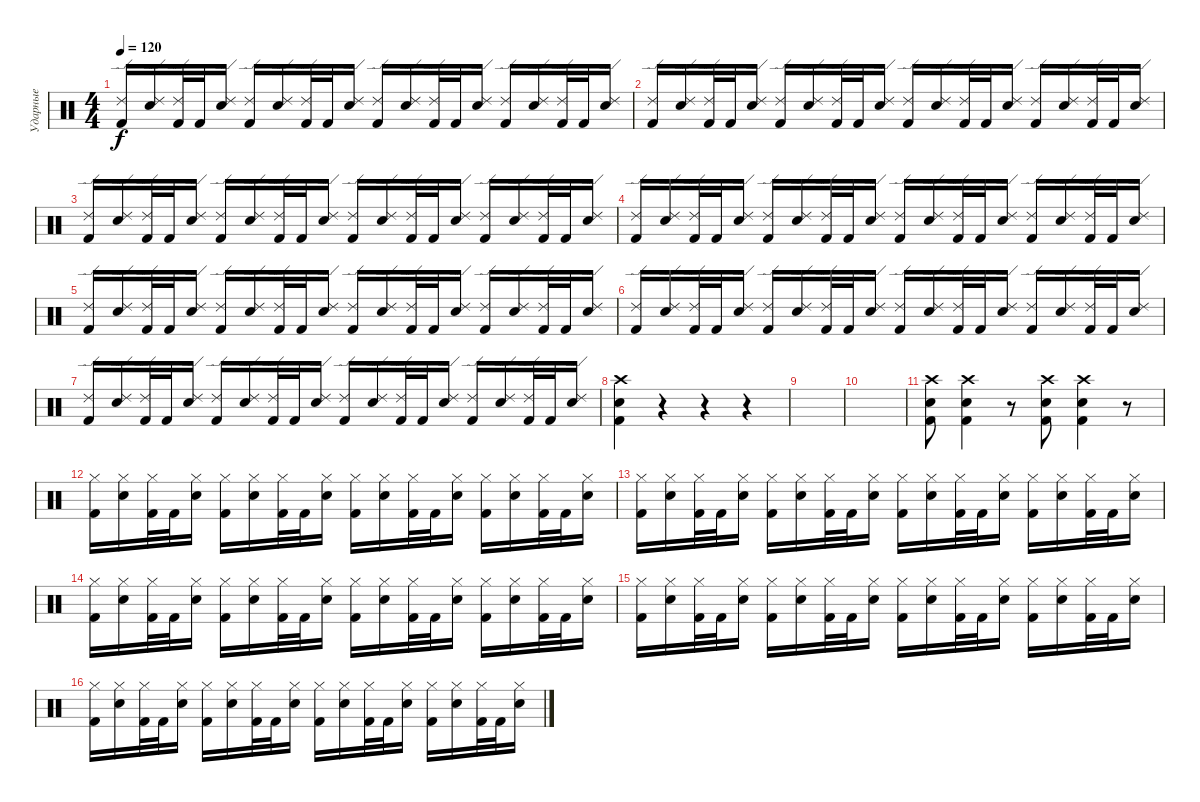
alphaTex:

\track ("Ударные" "Ударные") {instrument percussion}
\staff {score}
\articulation defaults
\ts (4 4)
\tempo 120
\clef neutral
\ks c
("Ride (edge) 2" "Kick (hit) 2").16{dy f} ("Ride (edge) 2" "Electric Snare (hit)").16 ("Ride (edge) 2" "Kick (hit) 2").32 "Kick (hit) 2".32 ("Ride (edge) 2" "Electric Snare (hit)").16 ("Ride (edge) 2" "Kick (hit) 2").16 ("Ride (edge) 2" "Electric Snare (hit)").16 ("Ride (edge) 2" "Kick (hit) 2").32 "Kick (hit) 2".32 ("Ride (edge) 2" "Electric Snare (hit)").16 ("Ride (edge) 2" "Kick (hit) 2").16 ("Ride (edge) 2" "Electric Snare (hit)").16 ("Ride (edge) 2" "Kick (hit) 2").32 "Kick (hit) 2".32 ("Ride (edge) 2" "Electric Snare (hit)").16 ("Ride (edge) 2" "Kick (hit) 2").16 ("Ride (edge) 2" "Electric Snare (hit)").16 ("Ride (edge) 2" "Kick (hit) 2").32 "Kick (hit) 2".32 ("Ride (edge) 2" "Electric Snare (hit)").16 |
("Ride (edge) 2" "Kick (hit) 2").16 ("Ride (edge) 2" "Electric Snare (hit)").16 ("Ride (edge) 2" "Kick (hit) 2").32 "Kick (hit) 2".32 ("Ride (edge) 2" "Electric Snare (hit)").16 ("Ride (edge) 2" "Kick (hit) 2").16 ("Ride (edge) 2" "Electric Snare (hit)").16 ("Ride (edge) 2" "Kick (hit) 2").32 "Kick (hit) 2".32 ("Ride (edge) 2" "Electric Snare (hit)").16 ("Ride (edge) 2" "Kick (hit) 2").16 ("Ride (edge) 2" "Electric Snare (hit)").16 ("Ride (edge) 2" "Kick (hit) 2").32 "Kick (hit) 2".32 ("Ride (edge) 2" "Electric Snare (hit)").16 ("Ride (edge) 2" "Kick (hit) 2").16 ("Ride (edge) 2" "Electric Snare (hit)").16 ("Ride (edge) 2" "Kick (hit) 2").32 "Kick (hit) 2".32 ("Ride (edge) 2" "Electric Snare (hit)").16 |
("Ride (edge) 2" "Kick (hit) 2").16 ("Ride (edge) 2" "Electric Snare (hit)").16 ("Ride (edge) 2" "Kick (hit) 2").32 "Kick (hit) 2".32 ("Ride (edge) 2" "Electric Snare (hit)").16 ("Ride (edge) 2" "Kick (hit) 2").16 ("Ride (edge) 2" "Electric Snare (hit)").16 ("Ride (edge) 2" "Kick (hit) 2").32 "Kick (hit) 2".32 ("Ride (edge) 2" "Electric Snare (hit)").16 ("Ride (edge) 2" "Kick (hit) 2").16 ("Ride (edge) 2" "Electric Snare (hit)").16 ("Ride (edge) 2" "Kick (hit) 2").32 "Kick (hit) 2".32 ("Ride (edge) 2" "Electric Snare (hit)").16 ("Ride (edge) 2" "Kick (hit) 2").16 ("Ride (edge) 2" "Electric Snare (hit)").16 ("Ride (edge) 2" "Kick (hit) 2").32 "Kick (hit) 2".32 ("Ride (edge) 2" "Electric Snare (hit)").16 |
("Ride (edge) 2" "Kick (hit) 2").16 ("Ride (edge) 2" "Electric Snare (hit)").16 ("Ride (edge) 2" "Kick (hit) 2").32 "Kick (hit) 2".32 ("Ride (edge) 2" "Electric Snare (hit)").16 ("Ride (edge) 2" "Kick (hit) 2").16 ("Ride (edge) 2" "Electric Snare (hit)").16 ("Ride (edge) 2" "Kick (hit) 2").32 "Kick (hit) 2".32 ("Ride (edge) 2" "Electric Snare (hit)").16 ("Ride (edge) 2" "Kick (hit) 2").16 ("Ride (edge) 2" "Electric Snare (hit)").16 ("Ride (edge) 2" "Kick (hit) 2").32 "Kick (hit) 2".32 ("Ride (edge) 2" "Electric Snare (hit)").16 ("Ride (edge) 2" "Kick (hit) 2").16 ("Ride (edge) 2" "Electric Snare (hit)").16 ("Ride (edge) 2" "Kick (hit) 2").32 "Kick (hit) 2".32 ("Ride (edge) 2" "Electric Snare (hit)").16 |
("Ride (edge) 2" "Kick (hit) 2").16 ("Ride (edge) 2" "Electric Snare (hit)").16 ("Ride (edge) 2" "Kick (hit) 2").32 "Kick (hit) 2".32 ("Ride (edge) 2" "Electric Snare (hit)").16 ("Ride (edge) 2" "Kick (hit) 2").16 ("Ride (edge) 2" "Electric Snare (hit)").16 ("Ride (edge) 2" "Kick (hit) 2").32 "Kick (hit) 2".32 ("Ride (edge) 2" "Electric Snare (hit)").16 ("Ride (edge) 2" "Kick (hit) 2").16 ("Ride (edge) 2" "Electric Snare (hit)").16 ("Ride (edge) 2" "Kick (hit) 2").32 "Kick (hit) 2".32 ("Ride (edge) 2" "Electric Snare (hit)").16 ("Ride (edge) 2" "Kick (hit) 2").16 ("Ride (edge) 2" "Electric Snare (hit)").16 ("Ride (edge) 2" "Kick (hit) 2").32 "Kick (hit) 2".32 ("Ride (edge) 2" "Electric Snare (hit)").16 |
("Ride (edge) 2" "Kick (hit) 2").16 ("Ride (edge) 2" "Electric Snare (hit)").16 ("Ride (edge) 2" "Kick (hit) 2").32 "Kick (hit) 2".32 ("Ride (edge) 2" "Electric Snare (hit)").16 ("Ride (edge) 2" "Kick (hit) 2").16 ("Ride (edge) 2" "Electric Snare (hit)").16 ("Ride (edge) 2" "Kick (hit) 2").32 "Kick (hit) 2".32 ("Ride (edge) 2" "Electric Snare (hit)").16 ("Ride (edge) 2" "Kick (hit) 2").16 ("Ride (edge) 2" "Electric Snare (hit)").16 ("Ride (edge) 2" "Kick (hit) 2").32 "Kick (hit) 2".32 ("Ride (edge) 2" "Electric Snare (hit)").16 ("Ride (edge) 2" "Kick (hit) 2").16 ("Ride (edge) 2" "Electric Snare (hit)").16 ("Ride (edge) 2" "Kick (hit) 2").32 "Kick (hit) 2".32 ("Ride (edge) 2" "Electric Snare (hit)").16 |
("Ride (edge) 2" "Kick (hit) 2").16 ("Ride (edge) 2" "Electric Snare (hit)").16 ("Ride (edge) 2" "Kick (hit) 2").32 "Kick (hit) 2".32 ("Ride (edge) 2" "Electric Snare (hit)").16 ("Ride (edge) 2" "Kick (hit) 2").16 ("Ride (edge) 2" "Electric Snare (hit)").16 ("Ride (edge) 2" "Kick (hit) 2").32 "Kick (hit) 2".32 ("Ride (edge) 2" "Electric Snare (hit)").16 ("Ride (edge) 2" "Kick (hit) 2").16 ("Ride (edge) 2" "Electric Snare (hit)").16 ("Ride (edge) 2" "Kick (hit) 2").32 "Kick (hit) 2".32 ("Ride (edge) 2" "Electric Snare (hit)").16 ("Ride (edge) 2" "Kick (hit) 2").16 ("Ride (edge) 2" "Electric Snare (hit)").16 ("Ride (edge) 2" "Kick (hit) 2").32 "Kick (hit) 2".32 ("Ride (edge) 2" "Electric Snare (hit)").16 |
("Crash high (hit)" "Electric Snare (hit)" "Kick (hit) 2").4 r.4 r.4 r.4 |
|
|
("Crash high (hit)" "Electric Snare (hit)" "Kick (hit) 2").8 ("Crash high (hit)" "Electric Snare (hit)" "Kick (hit) 2").4 r.8 ("Crash high (hit)" "Electric Snare (hit)" "Kick (hit) 2").8 ("Crash high (hit)" "Electric Snare (hit)" "Kick (hit) 2").4 r.8 |
("Hi-Hat (closed)" "Kick (hit) 2").16 ("Hi-Hat (closed)" "Electric Snare (hit)").16 ("Hi-Hat (closed)" "Kick (hit) 2").32 "Kick (hit) 2".32 ("Hi-Hat (closed)" "Electric Snare (hit)").16 ("Hi-Hat (closed)" "Kick (hit) 2").16 ("Hi-Hat (closed)" "Electric Snare (hit)").16 ("Hi-Hat (closed)" "Kick (hit) 2").32 "Kick (hit) 2".32 ("Hi-Hat (closed)" "Electric Snare (hit)").16 ("Hi-Hat (closed)" "Kick (hit) 2").16 ("Hi-Hat (closed)" "Electric Snare (hit)").16 ("Hi-Hat (closed)" "Kick (hit) 2").32 "Kick (hit) 2".32 ("Hi-Hat (closed)" "Electric Snare (hit)").16 ("Hi-Hat (closed)" "Kick (hit) 2").16 ("Hi-Hat (closed)" "Electric Snare (hit)").16 ("Hi-Hat (closed)" "Kick (hit) 2").32 "Kick (hit) 2".32 ("Hi-Hat (closed)" "Electric Snare (hit)").16 |
("Hi-Hat (closed)" "Kick (hit) 2").16 ("Hi-Hat (closed)" "Electric Snare (hit)").16 ("Hi-Hat (closed)" "Kick (hit) 2").32 "Kick (hit) 2".32 ("Hi-Hat (closed)" "Electric Snare (hit)").16 ("Hi-Hat (closed)" "Kick (hit) 2").16 ("Hi-Hat (closed)" "Electric Snare (hit)").16 ("Hi-Hat (closed)" "Kick (hit) 2").32 "Kick (hit) 2".32 ("Hi-Hat (closed)" "Electric Snare (hit)").16 ("Hi-Hat (closed)" "Kick (hit) 2").16 ("Hi-Hat (closed)" "Electric Snare (hit)").16 ("Hi-Hat (closed)" "Kick (hit) 2").32 "Kick (hit) 2".32 ("Hi-Hat (closed)" "Electric Snare (hit)").16 ("Hi-Hat (closed)" "Kick (hit) 2").16 ("Hi-Hat (closed)" "Electric Snare (hit)").16 ("Hi-Hat (closed)" "Kick (hit) 2").32 "Kick (hit) 2".32 ("Hi-Hat (closed)" "Electric Snare (hit)").16 |
("Hi-Hat (closed)" "Kick (hit) 2").16 ("Hi-Hat (closed)" "Electric Snare (hit)").16 ("Hi-Hat (closed)" "Kick (hit) 2").32 "Kick (hit) 2".32 ("Hi-Hat (closed)" "Electric Snare (hit)").16 ("Hi-Hat (closed)" "Kick (hit) 2").16 ("Hi-Hat (closed)" "Electric Snare (hit)").16 ("Hi-Hat (closed)" "Kick (hit) 2").32 "Kick (hit) 2".32 ("Hi-Hat (closed)" "Electric Snare (hit)").16 ("Hi-Hat (closed)" "Kick (hit) 2").16 ("Hi-Hat (closed)" "Electric Snare (hit)").16 ("Hi-Hat (closed)" "Kick (hit) 2").32 "Kick (hit) 2".32 ("Hi-Hat (closed)" "Electric Snare (hit)").16 ("Hi-Hat (closed)" "Kick (hit) 2").16 ("Hi-Hat (closed)" "Electric Snare (hit)").16 ("Hi-Hat (closed)" "Kick (hit) 2").32 "Kick (hit) 2".32 ("Hi-Hat (closed)" "Electric Snare (hit)").16 |
("Hi-Hat (closed)" "Kick (hit) 2").16 ("Hi-Hat (closed)" "Electric Snare (hit)").16 ("Hi-Hat (closed)" "Kick (hit) 2").32 "Kick (hit) 2".32 ("Hi-Hat (closed)" "Electric Snare (hit)").16 ("Hi-Hat (closed)" "Kick (hit) 2").16 ("Hi-Hat (closed)" "Electric Snare (hit)").16 ("Hi-Hat (closed)" "Kick (hit) 2").32 "Kick (hit) 2".32 ("Hi-Hat (closed)" "Electric Snare (hit)").16 ("Hi-Hat (closed)" "Kick (hit) 2").16 ("Hi-Hat (closed)" "Electric Snare (hit)").16 ("Hi-Hat (closed)" "Kick (hit) 2").32 "Kick (hit) 2".32 ("Hi-Hat (closed)" "Electric Snare (hit)").16 ("Hi-Hat (closed)" "Kick (hit) 2").16 ("Hi-Hat (closed)" "Electric Snare (hit)").16 ("Hi-Hat (closed)" "Kick (hit) 2").32 "Kick (hit) 2".32 ("Hi-Hat (closed)" "Electric Snare (hit)").16 |
("Hi-Hat (closed)" "Kick (hit) 2").16 ("Hi-Hat (closed)" "Electric Snare (hit)").16 ("Hi-Hat (closed)" "Kick (hit) 2").32 "Kick (hit) 2".32 ("Hi-Hat (closed)" "Electric Snare (hit)").16 ("Hi-Hat (closed)" "Kick (hit) 2").16 ("Hi-Hat (closed)" "Electric Snare (hit)").16 ("Hi-Hat (closed)" "Kick (hit) 2").32 "Kick (hit) 2".32 ("Hi-Hat (closed)" "Electric Snare (hit)").16 ("Hi-Hat (closed)" "Kick (hit) 2").16 ("Hi-Hat (closed)" "Electric Snare (hit)").16 ("Hi-Hat (closed)" "Kick (hit) 2").32 "Kick (hit) 2".32 ("Hi-Hat (closed)" "Electric Snare (hit)").16 ("Hi-Hat (closed)" "Kick (hit) 2").16 ("Hi-Hat (closed)" "Electric Snare (hit)").16 ("Hi-Hat (closed)" "Kick (hit) 2").32 "Kick (hit) 2".32 ("Hi-Hat (closed)" "Electric Snare (hit)").16
